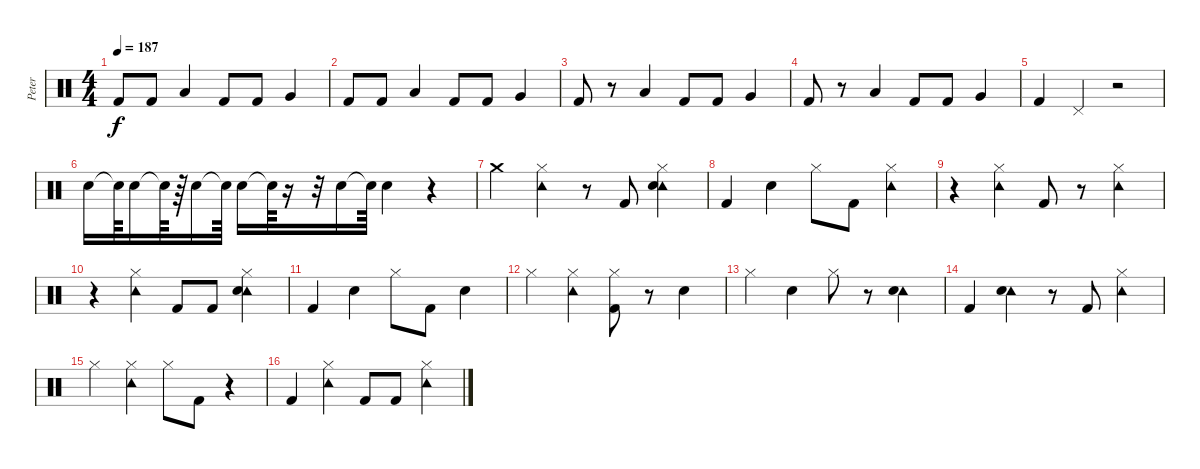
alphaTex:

\track ("Peter" "Peter") {instrument percussion}
\staff {score}
\articulation defaults
\ts (4 4)
\tempo 187
\clef neutral
\ks c "Kick (hit) 2".8{dy f} "Kick (hit) 2".8 "Low Tom (hit)".4 "Kick (hit) 2".8 "Kick (hit) 2".8 "Very Low Tom (hit)".4
|
"Kick (hit) 2".8 "Kick (hit) 2".8 "Low Tom (hit)".4 "Kick (hit) 2".8 "Kick (hit) 2".8 "Very Low Tom (hit)".4 |
"Kick (hit) 2".8 r.8 "Low Tom (hit)".4 "Kick (hit) 2".8 "Kick (hit) 2".8 "Very Low Tom (hit)".4 |
"Kick (hit) 2".8 r.8 "Low Tom (hit)".4 "Kick (hit) 2".8 "Kick (hit) 2".8 "Very Low Tom (hit)".4 |
"Kick (hit) 2".4 "Pedal Hi-Hat (hit)".4 r.2 |
"Electric Snare (hit)".16 "Snare (hit)"{t}.64 "Electric Snare (hit)".16 "Snare (hit)"{t}.64 r.64 "Electric Snare (hit)".16 "Snare (hit)"{t}.64 "Electric Snare (hit)".16 "Snare (hit)"{t}.64 r.16 r.32 "Electric Snare (hit)".16 "Snare (hit)"{t}.64 "Electric Snare (hit)".4 r.4 |
"Crash medium (hit)".4 ("Hi-Hat (closed)" "Tambourine (hit)").4 r.8 "Kick (hit) 2".8 ("Hi-Hat (closed)" "Tambourine (hit)" "Electric Snare (hit)").4 |
"Kick (hit) 2".4 "Electric Snare (hit)".4 "Hi-Hat (closed)".8 "Kick (hit) 2".8 ("Hi-Hat (closed)" "Tambourine (hit)").4 |
r.4 ("Hi-Hat (closed)" "Tambourine (hit)").4 "Kick (hit) 2".8 r.8 ("Hi-Hat (closed)" "Tambourine (hit)").4 |
r.4 ("Hi-Hat (closed)" "Tambourine (hit)").4 "Kick (hit) 2".8 "Kick (hit) 2".8 ("Hi-Hat (closed)" "Tambourine (hit)" "Electric Snare (hit)").4 |
"Kick (hit) 2".4 "Electric Snare (hit)".4 "Hi-Hat (closed)".8 "Kick (hit) 2".8 "Electric Snare (hit)".4 |
"Hi-Hat (closed)".4 ("Hi-Hat (closed)" "Tambourine (hit)").4 ("Hi-Hat (closed)" "Kick (hit) 2").8 r.8 "Electric Snare (hit)".4 |
"Hi-Hat (closed)".4 "Electric Snare (hit)".4 "Hi-Hat (closed)".8 r.8 ("Tambourine (hit)" "Electric Snare (hit)").4 |
"Kick (hit) 2".4 ("Tambourine (hit)" "Electric Snare (hit)").4 r.8 "Kick (hit) 2".8 ("Hi-Hat (closed)" "Tambourine (hit)").4 |
"Hi-Hat (closed)".4 ("Hi-Hat (closed)" "Tambourine (hit)").4 "Hi-Hat (closed)".8 "Kick (hit) 2".8 r.4 |
"Kick (hit) 2".4 ("Hi-Hat (closed)" "Tambourine (hit)").4 "Kick (hit) 2".8 "Kick (hit) 2".8 ("Hi-Hat (closed)" "Tambourine (hit)").4
